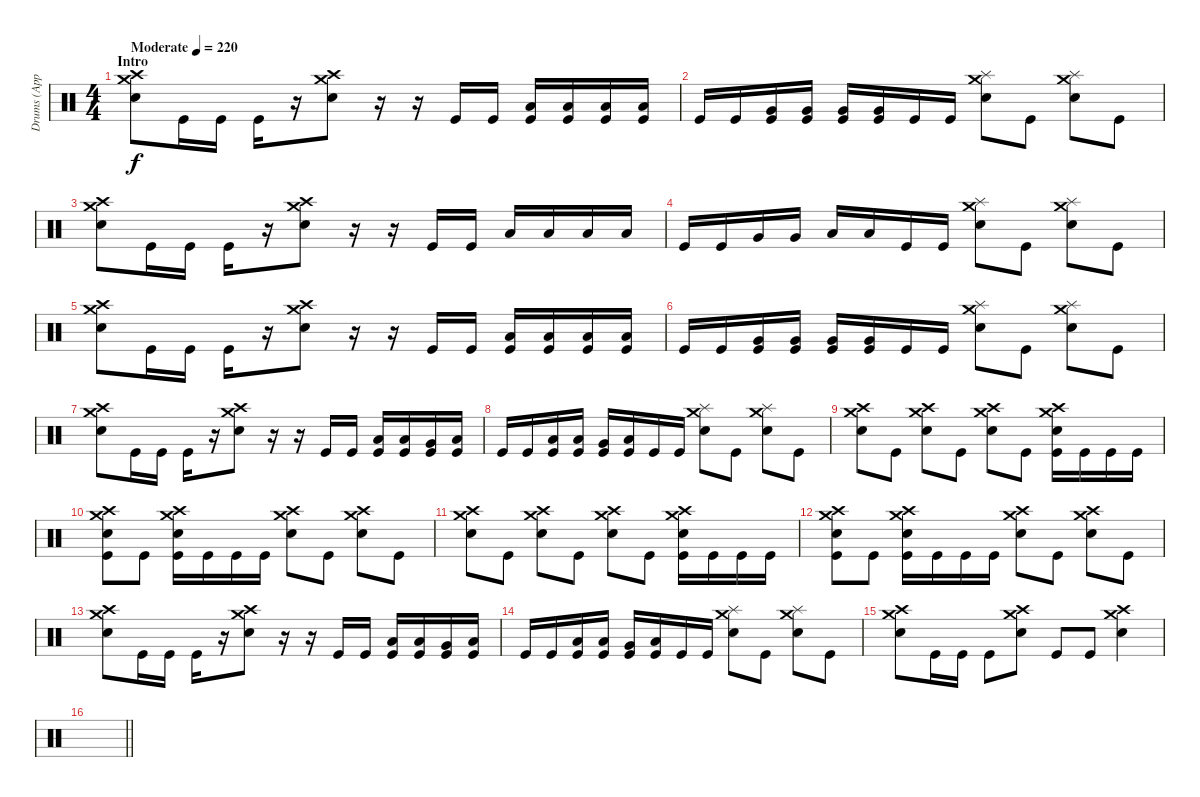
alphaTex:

\track ("Drums (Approx.)" "Drums (App") {instrument percussion}
\staff {score}
\articulation defaults
\ts (4 4)
\section ("" "Intro")
\tempo (220 "Moderate")
\clef neutral
\ks c
("Crash medium (hit)" "Crash high (hit)" "Electric Snare (hit)").8{dy f} "Kick (hit)".16 "Kick (hit)".16 "Kick (hit)".16 r.16 ("Crash medium (hit)" "Crash high (hit)" "Electric Snare (hit)").8 r.16 r.16 "Kick (hit)".16 "Kick (hit)".16 ("Low Tom (hit)" "Kick (hit)").16 ("Low Tom (hit)" "Kick (hit)").16 ("Low Tom (hit)" "Kick (hit)").16 ("Low Tom (hit)" "Kick (hit)").16 |
"Kick (hit)".16 "Kick (hit)".16 ("Very Low Tom (hit)" "Kick (hit)").16 ("Very Low Tom (hit)" "Kick (hit)").16 ("Very Low Tom (hit)" "Kick (hit)").16 ("Very Low Tom (hit)" "Kick (hit)").16 "Kick (hit)".16 "Kick (hit)".16 ("Crash medium (hit)" "Splash (hit)" "Electric Snare (hit)").8 "Kick (hit)".8 ("Crash medium (hit)" "Splash (hit)" "Electric Snare (hit)").8 "Kick (hit)".8 |
("Crash medium (hit)" "Crash high (hit)" "Electric Snare (hit)").8 "Kick (hit)".16 "Kick (hit)".16 "Kick (hit)".16 r.16 ("Crash medium (hit)" "Crash high (hit)" "Electric Snare (hit)").8 r.16 r.16 "Kick (hit)".16 "Kick (hit)".16 "Low Tom (hit)".16 "Low Tom (hit)".16 "Low Tom (hit)".16 "Low Tom (hit)".16 |
"Kick (hit)".16 "Kick (hit)".16 "Very Low Tom (hit)".16 "Very Low Tom (hit)".16 "Low Floor Tom (hit)".16 "Low Floor Tom (hit)".16 "Kick (hit)".16 "Kick (hit)".16 ("Crash medium (hit)" "Splash (hit)" "Electric Snare (hit)").8 "Kick (hit)".8 ("Crash medium (hit)" "Splash (hit)" "Electric Snare (hit)").8 "Kick (hit)".8 |
("Crash medium (hit)" "Crash high (hit)" "Electric Snare (hit)").8 "Kick (hit)".16 "Kick (hit)".16 "Kick (hit)".16 r.16 ("Crash medium (hit)" "Crash high (hit)" "Electric Snare (hit)").8 r.16 r.16 "Kick (hit)".16 "Kick (hit)".16 ("Low Tom (hit)" "Kick (hit)").16 ("Low Tom (hit)" "Kick (hit)").16 ("Low Tom (hit)" "Kick (hit)").16 ("Low Tom (hit)" "Kick (hit)").16 |
"Kick (hit)".16 "Kick (hit)".16 ("Very Low Tom (hit)" "Kick (hit)").16 ("Very Low Tom (hit)" "Kick (hit)").16 ("Very Low Tom (hit)" "Kick (hit)").16 ("Very Low Tom (hit)" "Kick (hit)").16 "Kick (hit)".16 "Kick (hit)".16 ("Crash medium (hit)" "Splash (hit)" "Electric Snare (hit)").8 "Kick (hit)".8 ("Crash medium (hit)" "Splash (hit)" "Electric Snare (hit)").8 "Kick (hit)".8 |
("Crash medium (hit)" "Crash high (hit)" "Electric Snare (hit)").8 "Kick (hit)".16 "Kick (hit)".16 "Kick (hit)".16 r.16 ("Crash medium (hit)" "Crash high (hit)" "Electric Snare (hit)").8 r.16 r.16 "Kick (hit)".16 "Kick (hit)".16 ("Low Tom (hit)" "Kick (hit)").16 ("Low Tom (hit)" "Kick (hit)").16 ("Very Low Tom (hit)" "Kick (hit)").16 ("Low Floor Tom (hit)" "Kick (hit)").16 |
"Kick (hit)".16 "Kick (hit)".16 ("Low Tom (hit)" "Kick (hit)").16 ("Low Tom (hit)" "Kick (hit)").16 ("Very Low Tom (hit)" "Kick (hit)").16 ("Low Floor Tom (hit)" "Kick (hit)").16 "Kick (hit)".16 "Kick (hit)".16 ("Crash medium (hit)" "Splash (hit)" "Electric Snare (hit)").8 "Kick (hit)".8 ("Crash medium (hit)" "Splash (hit)" "Electric Snare (hit)").8 "Kick (hit)".8 |
("Crash medium (hit)" "Crash high (hit)" "Electric Snare (hit)").8 "Kick (hit)".8 ("Crash medium (hit)" "Crash high (hit)" "Electric Snare (hit)").8 "Kick (hit)".8 ("Crash medium (hit)" "Crash high (hit)" "Electric Snare (hit)").8 "Kick (hit)".8 ("Crash medium (hit)" "Crash high (hit)" "Electric Snare (hit)" "Kick (hit)").16 "Kick (hit)".16 "Kick (hit)".16 "Kick (hit)".16 |
("Crash medium (hit)" "Crash high (hit)" "Electric Snare (hit)" "Kick (hit)").8 "Kick (hit)".8 ("Crash medium (hit)" "Crash high (hit)" "Electric Snare (hit)" "Kick (hit)").16 "Kick (hit)".16 "Kick (hit)".16 "Kick (hit)".16 ("Crash medium (hit)" "Crash high (hit)" "Electric Snare (hit)").8 "Kick (hit)".8 ("Crash medium (hit)" "Crash high (hit)" "Electric Snare (hit)").8 "Kick (hit)".8 |
("Crash medium (hit)" "Crash high (hit)" "Electric Snare (hit)").8 "Kick (hit)".8 ("Crash medium (hit)" "Crash high (hit)" "Electric Snare (hit)").8 "Kick (hit)".8 ("Crash medium (hit)" "Crash high (hit)" "Electric Snare (hit)").8 "Kick (hit)".8 ("Crash medium (hit)" "Crash high (hit)" "Electric Snare (hit)" "Kick (hit)").16 "Kick (hit)".16 "Kick (hit)".16 "Kick (hit)".16 |
("Crash medium (hit)" "Crash high (hit)" "Electric Snare (hit)" "Kick (hit)").8 "Kick (hit)".8 ("Crash medium (hit)" "Crash high (hit)" "Electric Snare (hit)" "Kick (hit)").16 "Kick (hit)".16 "Kick (hit)".16 "Kick (hit)".16 ("Crash medium (hit)" "Crash high (hit)" "Electric Snare (hit)").8 "Kick (hit)".8 ("Crash medium (hit)" "Crash high (hit)" "Electric Snare (hit)").8 "Kick (hit)".8 |
("Crash medium (hit)" "Crash high (hit)" "Electric Snare (hit)").8 "Kick (hit)".16 "Kick (hit)".16 "Kick (hit)".16 r.16 ("Crash medium (hit)" "Crash high (hit)" "Electric Snare (hit)").8 r.16 r.16 "Kick (hit)".16 "Kick (hit)".16 ("Low Tom (hit)" "Kick (hit)").16 ("Low Tom (hit)" "Kick (hit)").16 ("Very Low Tom (hit)" "Kick (hit)").16 ("Low Floor Tom (hit)" "Kick (hit)").16 |
"Kick (hit)".16 "Kick (hit)".16 ("Low Tom (hit)" "Kick (hit)").16 ("Low Tom (hit)" "Kick (hit)").16 ("Very Low Tom (hit)" "Kick (hit)").16 ("Low Floor Tom (hit)" "Kick (hit)").16 "Kick (hit)".16 "Kick (hit)".16 ("Crash medium (hit)" "Splash (hit)" "Electric Snare (hit)").8 "Kick (hit)".8 ("Crash medium (hit)" "Splash (hit)" "Electric Snare (hit)").8 "Kick (hit)".8 |
("Crash medium (hit)" "Crash high (hit)" "Electric Snare (hit)").8 "Kick (hit)".16 "Kick (hit)".16 "Kick (hit)".8 ("Crash medium (hit)" "Crash high (hit)" "Electric Snare (hit)").8 "Kick (hit)".8 "Kick (hit)".8 ("Crash medium (hit)" "Crash high (hit)" "Electric Snare (hit)").4 |
\barLineRight lightlight
